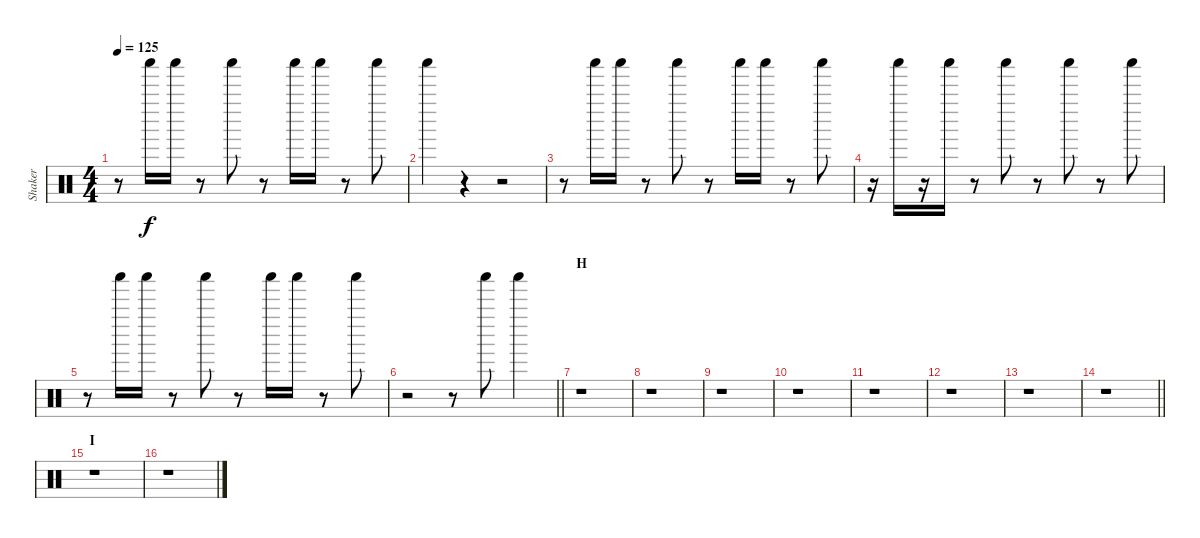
\track ("Shaker" "Shaker") {instrument percussion}
\staff {score}
\articulation defaults
\ts (4 4)
\tempo 125
\clef neutral
\ks c
r.8{dy f} "Shaker (hit)".16 "Shaker (hit)".16 r.8 "Shaker (hit)".8 r.8 "Shaker (hit)".16 "Shaker (hit)".16 r.8 "Shaker (hit)".8 |
"Shaker (hit)".4 r.4 r.2 |
r.8 "Shaker (hit)".16 "Shaker (hit)".16 r.8 "Shaker (hit)".8 r.8 "Shaker (hit)".16 "Shaker (hit)".16 r.8 "Shaker (hit)".8 |
r.16 "Shaker (hit)".16 r.16 "Shaker (hit)".16 r.8 "Shaker (hit)".8 r.8 "Shaker (hit)".8 r.8 "Shaker (hit)".8 |
r.8 "Shaker (hit)".16 "Shaker (hit)".16 r.8 "Shaker (hit)".8 r.8 "Shaker (hit)".16 "Shaker (hit)".16 r.8 "Shaker (hit)".8 |
\barLineRight lightlight
r.2 r.8 "Shaker (hit)".8 "Shaker (hit)".4 |
\section ("" "H")
r.1 |
r.1 |
r.1 |
r.1 |
r.1 |
r.1 |
r.1 |
\barLineRight lightlight
r.1 |
\section ("" "I")
r.1 |
r.1
